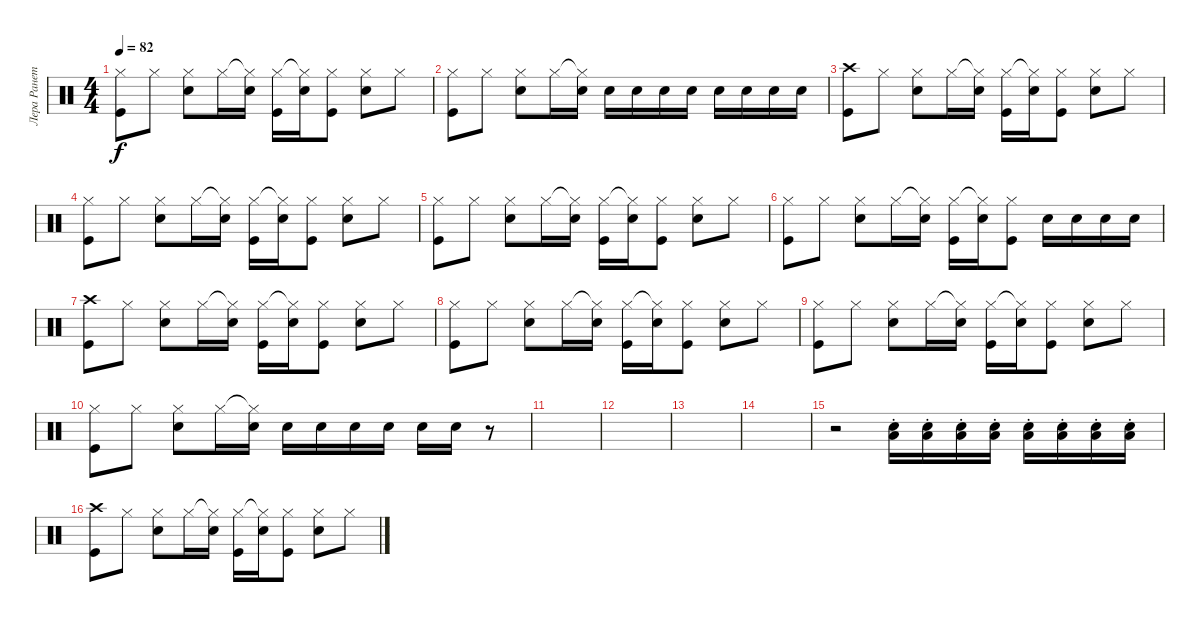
\track ("Лера Ранетка" "Лера Ранет") {instrument percussion}
\staff {score}
\articulation defaults
\ts (4 4)
\tempo 82
\clef neutral
\ks c
("Hi-Hat (closed)" "Kick (hit)").8{dy f} "Hi-Hat (closed)".8 ("Hi-Hat (closed)" "Electric Snare (hit)").8 "Hi-Hat (closed)".16 ("Hi-Hat (closed)"{t} "Electric Snare (hit)").16 ("Hi-Hat (closed)" "Kick (hit)").16 ("Hi-Hat (closed)"{t} "Electric Snare (hit)").16 ("Hi-Hat (closed)" "Kick (hit)").8 ("Hi-Hat (closed)" "Electric Snare (hit)").8 "Hi-Hat (closed)".8 |
("Hi-Hat (closed)" "Kick (hit)").8 "Hi-Hat (closed)".8 ("Hi-Hat (closed)" "Electric Snare (hit)").8 "Hi-Hat (closed)".16 ("Hi-Hat (closed)"{t} "Electric Snare (hit)").16 "Electric Snare (hit)".16 "Electric Snare (hit)".16 "Electric Snare (hit)".16 "Electric Snare (hit)".16 "Electric Snare (hit)".16 "Electric Snare (hit)".16 "Electric Snare (hit)".16 "Electric Snare (hit)".16 |
("Crash high (hit)" "Kick (hit)").8 "Hi-Hat (closed)".8 ("Hi-Hat (closed)" "Electric Snare (hit)").8 "Hi-Hat (closed)".16 ("Hi-Hat (closed)"{t} "Electric Snare (hit)").16 ("Hi-Hat (closed)" "Kick (hit)").16 ("Hi-Hat (closed)"{t} "Electric Snare (hit)").16 ("Hi-Hat (closed)" "Kick (hit)").8 ("Hi-Hat (closed)" "Electric Snare (hit)").8 "Hi-Hat (closed)".8 |
("Hi-Hat (closed)" "Kick (hit)").8 "Hi-Hat (closed)".8 ("Hi-Hat (closed)" "Electric Snare (hit)").8 "Hi-Hat (closed)".16 ("Hi-Hat (closed)"{t} "Electric Snare (hit)").16 ("Hi-Hat (closed)" "Kick (hit)").16 ("Hi-Hat (closed)"{t} "Electric Snare (hit)").16 ("Hi-Hat (closed)" "Kick (hit)").8 ("Hi-Hat (closed)" "Electric Snare (hit)").8 "Hi-Hat (closed)".8 |
("Hi-Hat (closed)" "Kick (hit)").8 "Hi-Hat (closed)".8 ("Hi-Hat (closed)" "Electric Snare (hit)").8 "Hi-Hat (closed)".16 ("Hi-Hat (closed)"{t} "Electric Snare (hit)").16 ("Hi-Hat (closed)" "Kick (hit)").16 ("Hi-Hat (closed)"{t} "Electric Snare (hit)").16 ("Hi-Hat (closed)" "Kick (hit)").8 ("Hi-Hat (closed)" "Electric Snare (hit)").8 "Hi-Hat (closed)".8 |
("Hi-Hat (closed)" "Kick (hit)").8 "Hi-Hat (closed)".8 ("Hi-Hat (closed)" "Electric Snare (hit)").8 "Hi-Hat (closed)".16 ("Hi-Hat (closed)"{t} "Electric Snare (hit)").16 ("Hi-Hat (closed)" "Kick (hit)").16 ("Hi-Hat (closed)"{t} "Electric Snare (hit)").16 ("Hi-Hat (closed)" "Kick (hit)").8 "Electric Snare (hit)".16 "Electric Snare (hit)".16 "Electric Snare (hit)".16 "Electric Snare (hit)".16 |
("Crash high (hit)" "Kick (hit)").8 "Hi-Hat (closed)".8 ("Hi-Hat (closed)" "Electric Snare (hit)").8 "Hi-Hat (closed)".16 ("Hi-Hat (closed)"{t} "Electric Snare (hit)").16 ("Hi-Hat (closed)" "Kick (hit)").16 ("Hi-Hat (closed)"{t} "Electric Snare (hit)").16 ("Hi-Hat (closed)" "Kick (hit)").8 ("Hi-Hat (closed)" "Electric Snare (hit)").8 "Hi-Hat (closed)".8 |
("Hi-Hat (closed)" "Kick (hit)").8 "Hi-Hat (closed)".8 ("Hi-Hat (closed)" "Electric Snare (hit)").8 "Hi-Hat (closed)".16 ("Hi-Hat (closed)"{t} "Electric Snare (hit)").16 ("Hi-Hat (closed)" "Kick (hit)").16 ("Hi-Hat (closed)"{t} "Electric Snare (hit)").16 ("Hi-Hat (closed)" "Kick (hit)").8 ("Hi-Hat (closed)" "Electric Snare (hit)").8 "Hi-Hat (closed)".8 |
("Hi-Hat (closed)" "Kick (hit)").8 "Hi-Hat (closed)".8 ("Hi-Hat (closed)" "Electric Snare (hit)").8 "Hi-Hat (closed)".16 ("Hi-Hat (closed)"{t} "Electric Snare (hit)").16 ("Hi-Hat (closed)" "Kick (hit)").16 ("Hi-Hat (closed)"{t} "Electric Snare (hit)").16 ("Hi-Hat (closed)" "Kick (hit)").8 ("Hi-Hat (closed)" "Electric Snare (hit)").8 "Hi-Hat (closed)".8 |
("Hi-Hat (closed)" "Kick (hit)").8 "Hi-Hat (closed)".8 ("Hi-Hat (closed)" "Electric Snare (hit)").8 "Hi-Hat (closed)".16 ("Hi-Hat (closed)"{t} "Electric Snare (hit)").16 "Electric Snare (hit)".16 "Electric Snare (hit)".16 "Electric Snare (hit)".16 "Electric Snare (hit)".16 "Electric Snare (hit)".16 "Electric Snare (hit)".16 r.8 |
|
|
|
|
r.2 ("Low Floor Tom (hit)"{st} "Electric Snare (hit)"{st}).16 ("Low Floor Tom (hit)"{st} "Electric Snare (hit)"{st}).16 ("Low Floor Tom (hit)"{st} "Electric Snare (hit)"{st}).16 ("Low Floor Tom (hit)"{st} "Electric Snare (hit)"{st}).16 ("Low Floor Tom (hit)"{st} "Electric Snare (hit)"{st}).16 ("Low Floor Tom (hit)"{st} "Electric Snare (hit)"{st}).16 ("Low Floor Tom (hit)"{st} "Electric Snare (hit)"{st}).16 ("Low Floor Tom (hit)"{st} "Electric Snare (hit)"{st}).16 |
("Crash high (hit)" "Kick (hit)").8 "Hi-Hat (closed)".8 ("Hi-Hat (closed)" "Electric Snare (hit)").8 "Hi-Hat (closed)".16 ("Hi-Hat (closed)"{t} "Electric Snare (hit)").16 ("Hi-Hat (closed)" "Kick (hit)").16 ("Hi-Hat (closed)"{t} "Electric Snare (hit)").16 ("Hi-Hat (closed)" "Kick (hit)").8 ("Hi-Hat (closed)" "Electric Snare (hit)").8 "Hi-Hat (closed)".8
